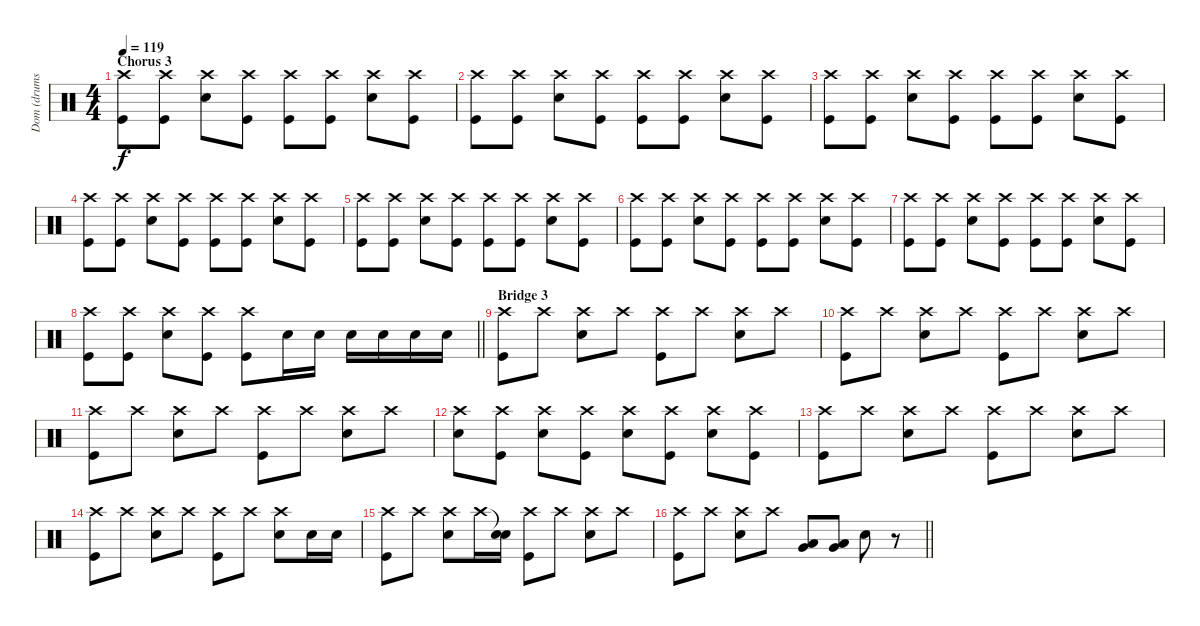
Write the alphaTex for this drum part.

\track ("Dom (drums)" "Dom (drums") {instrument percussion}
\staff {score}
\articulation defaults
\ts (4 4)
\section ("" "Chorus 3")
\tempo 119
\clef neutral
\ks c
("Crash high (hit)" "Kick (hit)").8{dy f} ("Crash high (hit)" "Kick (hit)").8 ("Crash high (hit)" "Snare (hit) 2").8 ("Crash high (hit)" "Kick (hit)").8 ("Crash high (hit)" "Kick (hit)").8 ("Crash high (hit)" "Kick (hit)").8 ("Crash high (hit)" "Snare (hit) 2").8 ("Crash high (hit)" "Kick (hit)").8 |
("Crash high (hit)" "Kick (hit)").8 ("Crash high (hit)" "Kick (hit)").8 ("Crash high (hit)" "Snare (hit) 2").8 ("Crash high (hit)" "Kick (hit)").8 ("Crash high (hit)" "Kick (hit)").8 ("Crash high (hit)" "Kick (hit)").8 ("Crash high (hit)" "Snare (hit) 2").8 ("Crash high (hit)" "Kick (hit)").8 |
("Crash high (hit)" "Kick (hit)").8 ("Crash high (hit)" "Kick (hit)").8 ("Crash high (hit)" "Snare (hit) 2").8 ("Crash high (hit)" "Kick (hit)").8 ("Crash high (hit)" "Kick (hit)").8 ("Crash high (hit)" "Kick (hit)").8 ("Crash high (hit)" "Snare (hit) 2").8 ("Crash high (hit)" "Kick (hit)").8 |
("Crash high (hit)" "Kick (hit)").8 ("Crash high (hit)" "Kick (hit)").8 ("Crash high (hit)" "Snare (hit) 2").8 ("Crash high (hit)" "Kick (hit)").8 ("Crash high (hit)" "Kick (hit)").8 ("Crash high (hit)" "Kick (hit)").8 ("Crash high (hit)" "Snare (hit) 2").8 ("Crash high (hit)" "Kick (hit)").8 |
("Crash high (hit)" "Kick (hit)").8 ("Crash high (hit)" "Kick (hit)").8 ("Crash high (hit)" "Snare (hit) 2").8 ("Crash high (hit)" "Kick (hit)").8 ("Crash high (hit)" "Kick (hit)").8 ("Crash high (hit)" "Kick (hit)").8 ("Crash high (hit)" "Snare (hit) 2").8 ("Crash high (hit)" "Kick (hit)").8 |
("Crash high (hit)" "Kick (hit)").8 ("Crash high (hit)" "Kick (hit)").8 ("Crash high (hit)" "Snare (hit) 2").8 ("Crash high (hit)" "Kick (hit)").8 ("Crash high (hit)" "Kick (hit)").8 ("Crash high (hit)" "Kick (hit)").8 ("Crash high (hit)" "Snare (hit) 2").8 ("Crash high (hit)" "Kick (hit)").8 |
("Crash high (hit)" "Kick (hit)").8 ("Crash high (hit)" "Kick (hit)").8 ("Crash high (hit)" "Snare (hit) 2").8 ("Crash high (hit)" "Kick (hit)").8 ("Crash high (hit)" "Kick (hit)").8 ("Crash high (hit)" "Kick (hit)").8 ("Crash high (hit)" "Snare (hit) 2").8 ("Crash high (hit)" "Kick (hit)").8 |
\barLineRight lightlight
("Crash high (hit)" "Kick (hit)").8 ("Crash high (hit)" "Kick (hit)").8 ("Crash high (hit)" "Snare (hit) 2").8 ("Crash high (hit)" "Kick (hit)").8 ("Crash high (hit)" "Kick (hit)").8 "Snare (hit) 2".16 "Snare (hit) 2".16 "Snare (hit) 2".16 "Snare (hit) 2".16 "Snare (hit) 2".16 "Snare (hit) 2".16 |
\section ("" "Bridge 3")
("Crash high (hit)" "Kick (hit)").8 "Crash high (hit)".8 ("Crash high (hit)" "Snare (hit) 2").8 "Crash high (hit)".8 ("Crash high (hit)" "Kick (hit)").8 "Crash high (hit)".8 ("Crash high (hit)" "Snare (hit) 2").8 "Crash high (hit)".8 |
("Crash high (hit)" "Kick (hit)").8 "Crash high (hit)".8 ("Crash high (hit)" "Snare (hit) 2").8 "Crash high (hit)".8 ("Crash high (hit)" "Kick (hit)").8 "Crash high (hit)".8 ("Crash high (hit)" "Snare (hit) 2").8 "Crash high (hit)".8 |
("Crash high (hit)" "Kick (hit)").8 "Crash high (hit)".8 ("Crash high (hit)" "Snare (hit) 2").8 "Crash high (hit)".8 ("Crash high (hit)" "Kick (hit)").8 "Crash high (hit)".8 ("Crash high (hit)" "Snare (hit) 2").8 "Crash high (hit)".8 |
("Crash high (hit)" "Snare (hit) 2").8 ("Crash high (hit)" "Kick (hit)").8 ("Crash high (hit)" "Snare (hit) 2").8 ("Crash high (hit)" "Kick (hit)").8 ("Crash high (hit)" "Snare (hit) 2").8 ("Crash high (hit)" "Kick (hit)").8 ("Crash high (hit)" "Snare (hit) 2").8 ("Crash high (hit)" "Kick (hit)").8 |
("Crash high (hit)" "Kick (hit)").8 "Crash high (hit)".8 ("Crash high (hit)" "Snare (hit) 2").8 "Crash high (hit)".8 ("Crash high (hit)" "Kick (hit)").8 "Crash high (hit)".8 ("Crash high (hit)" "Snare (hit) 2").8 "Crash high (hit)".8 |
("Crash high (hit)" "Kick (hit)").8 "Crash high (hit)".8 ("Crash high (hit)" "Snare (hit) 2").8 "Crash high (hit)".8 ("Crash high (hit)" "Kick (hit)").8 "Crash high (hit)".8 ("Crash high (hit)" "Snare (hit) 2").8 "Snare (hit) 2".16 "Snare (hit) 2".16 |
("Crash high (hit)" "Kick (hit)").8 "Crash high (hit)".8 ("Crash high (hit)" "Snare (hit) 2").8 "Crash high (hit)".16 ("Snare (hit)"{t} "Snare (hit) 2").16 ("Crash high (hit)" "Kick (hit)").8 "Crash high (hit)".8 ("Crash high (hit)" "Snare (hit) 2").8 "Crash high (hit)".8 |
\barLineRight lightlight
("Crash high (hit)" "Kick (hit)").8 "Crash high (hit)".8 ("Crash high (hit)" "Snare (hit) 2").8 "Crash high (hit)".8 ("Low Tom (hit)" "Very Low Tom (hit)").8 ("Low Tom (hit)" "Very Low Tom (hit)").8 "Snare (hit) 2".8 r.8
